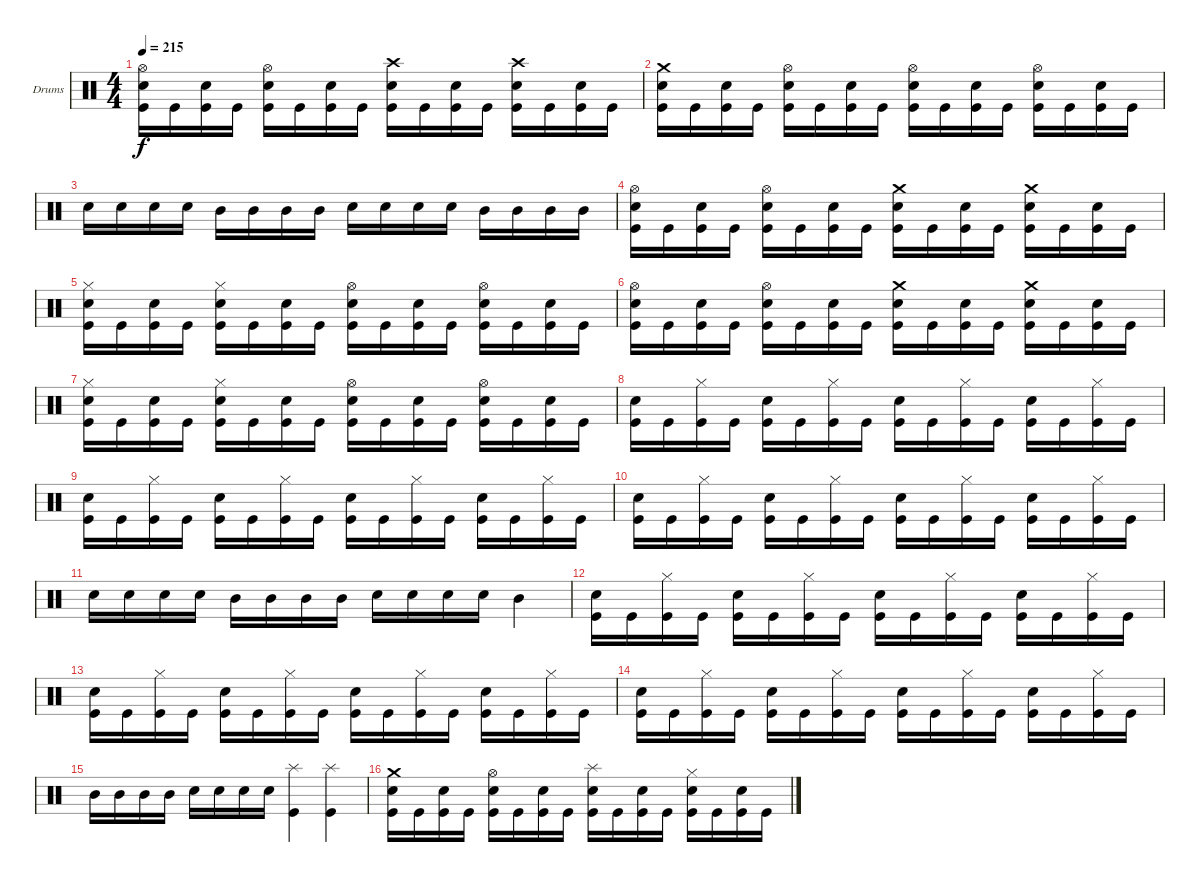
\defaultSystemsLayout 4
\bracketExtendMode groupsimilarinstruments
\firstSystemTrackNameOrientation horizontal
\otherSystemsTrackNameOrientation horizontal
\track ("Trey Williams" "Drums") {instrument percussion}
\staff {score}
\articulation defaults
\ts (4 4)
\tempo 215
\clef neutral
\ks c
("Kick (hit)" "Snare (hit) 2" "Hi-Hat (open)").16{dy f} "Kick (hit)".16 ("Kick (hit)" "Snare (hit) 2").16 "Kick (hit)".16 ("Kick (hit)" "Snare (hit) 2" "Hi-Hat (open)").16 "Kick (hit)".16 ("Kick (hit)" "Snare (hit) 2").16 "Kick (hit)".16 ("Kick (hit)" "Snare (hit) 2" "Crash high (hit)").16 "Kick (hit)".16 ("Kick (hit)" "Snare (hit) 2").16 "Kick (hit)".16 ("Kick (hit)" "Snare (hit) 2" "Crash high (hit)").16 "Kick (hit)".16 ("Kick (hit)" "Snare (hit) 2").16 "Kick (hit)".16 |
("Kick (hit)" "Snare (hit) 2" "Crash medium (hit)").16 "Kick (hit)".16 ("Kick (hit)" "Snare (hit) 2").16 "Kick (hit)".16 ("Kick (hit)" "Snare (hit) 2" "Hi-Hat (open)").16 "Kick (hit)".16 ("Kick (hit)" "Snare (hit) 2").16 "Kick (hit)".16 ("Kick (hit)" "Snare (hit) 2" "Hi-Hat (open)").16 "Kick (hit)".16 ("Kick (hit)" "Snare (hit) 2").16 "Kick (hit)".16 ("Kick (hit)" "Snare (hit) 2" "Hi-Hat (open)").16 "Kick (hit)".16 ("Kick (hit)" "Snare (hit) 2").16 "Kick (hit)".16 |
"Snare (hit) 2".16 "Snare (hit) 2".16 "Snare (hit) 2".16 "Snare (hit) 2".16 "Mid Tom (hit)".16 "Mid Tom (hit)".16 "Mid Tom (hit)".16 "Mid Tom (hit)".16 "Snare (hit) 2".16 "Snare (hit) 2".16 "Snare (hit) 2".16 "Snare (hit) 2".16 "Mid Tom (hit)".16 "Mid Tom (hit)".16 "Mid Tom (hit)".16 "Mid Tom (hit)".16 |
("Kick (hit)" "Snare (hit) 2" "Hi-Hat (open)").16 "Kick (hit)".16 ("Kick (hit)" "Snare (hit) 2").16 "Kick (hit)".16 ("Kick (hit)" "Snare (hit) 2" "Hi-Hat (open)").16 "Kick (hit)".16 ("Kick (hit)" "Snare (hit) 2").16 "Kick (hit)".16 ("Kick (hit)" "Snare (hit) 2" "Crash medium (hit)").16 "Kick (hit)".16 ("Kick (hit)" "Snare (hit) 2").16 "Kick (hit)".16 ("Kick (hit)" "Snare (hit) 2" "Crash medium (hit)").16 "Kick (hit)".16 ("Kick (hit)" "Snare (hit) 2").16 "Kick (hit)".16 |
("Kick (hit)" "Snare (hit) 2" "Hi-Hat (closed)").16 "Kick (hit)".16 ("Kick (hit)" "Snare (hit) 2").16 "Kick (hit)".16 ("Kick (hit)" "Snare (hit) 2" "Hi-Hat (closed)").16 "Kick (hit)".16 ("Kick (hit)" "Snare (hit) 2").16 "Kick (hit)".16 ("Kick (hit)" "Snare (hit) 2" "Hi-Hat (open)").16 "Kick (hit)".16 ("Kick (hit)" "Snare (hit) 2").16 "Kick (hit)".16 ("Kick (hit)" "Snare (hit) 2" "Hi-Hat (open)").16 "Kick (hit)".16 ("Kick (hit)" "Snare (hit) 2").16 "Kick (hit)".16 |
("Kick (hit)" "Snare (hit) 2" "Hi-Hat (open)").16 "Kick (hit)".16 ("Kick (hit)" "Snare (hit) 2").16 "Kick (hit)".16 ("Kick (hit)" "Snare (hit) 2" "Hi-Hat (open)").16 "Kick (hit)".16 ("Kick (hit)" "Snare (hit) 2").16 "Kick (hit)".16 ("Kick (hit)" "Snare (hit) 2" "Crash medium (hit)").16 "Kick (hit)".16 ("Kick (hit)" "Snare (hit) 2").16 "Kick (hit)".16 ("Kick (hit)" "Snare (hit) 2" "Crash medium (hit)").16 "Kick (hit)".16 ("Kick (hit)" "Snare (hit) 2").16 "Kick (hit)".16 |
("Kick (hit)" "Snare (hit) 2" "Hi-Hat (closed)").16 "Kick (hit)".16 ("Kick (hit)" "Snare (hit) 2").16 "Kick (hit)".16 ("Kick (hit)" "Snare (hit) 2" "Hi-Hat (closed)").16 "Kick (hit)".16 ("Kick (hit)" "Snare (hit) 2").16 "Kick (hit)".16 ("Kick (hit)" "Snare (hit) 2" "Hi-Hat (open)").16 "Kick (hit)".16 ("Kick (hit)" "Snare (hit) 2").16 "Kick (hit)".16 ("Kick (hit)" "Snare (hit) 2" "Hi-Hat (open)").16 "Kick (hit)".16 ("Kick (hit)" "Snare (hit) 2").16 "Kick (hit)".16 |
("Kick (hit)" "Snare (hit) 2").16 "Kick (hit)".16 ("Kick (hit)" "Hi-Hat (closed)").16 "Kick (hit)".16 ("Kick (hit)" "Snare (hit) 2").16 "Kick (hit)".16 ("Kick (hit)" "Hi-Hat (closed)").16 "Kick (hit)".16 ("Kick (hit)" "Snare (hit) 2").16 "Kick (hit)".16 ("Kick (hit)" "Hi-Hat (closed)").16 "Kick (hit)".16 ("Kick (hit)" "Snare (hit) 2").16 "Kick (hit)".16 ("Kick (hit)" "Hi-Hat (closed)").16 "Kick (hit)".16 |
("Kick (hit)" "Snare (hit) 2").16 "Kick (hit)".16 ("Kick (hit)" "Hi-Hat (closed)").16 "Kick (hit)".16 ("Kick (hit)" "Snare (hit) 2").16 "Kick (hit)".16 ("Kick (hit)" "Hi-Hat (closed)").16 "Kick (hit)".16 ("Kick (hit)" "Snare (hit) 2").16 "Kick (hit)".16 ("Kick (hit)" "Hi-Hat (closed)").16 "Kick (hit)".16 ("Kick (hit)" "Snare (hit) 2").16 "Kick (hit)".16 ("Kick (hit)" "Hi-Hat (closed)").16 "Kick (hit)".16 |
("Kick (hit)" "Snare (hit) 2").16 "Kick (hit)".16 ("Kick (hit)" "Hi-Hat (closed)").16 "Kick (hit)".16 ("Kick (hit)" "Snare (hit) 2").16 "Kick (hit)".16 ("Kick (hit)" "Hi-Hat (closed)").16 "Kick (hit)".16 ("Kick (hit)" "Snare (hit) 2").16 "Kick (hit)".16 ("Kick (hit)" "Hi-Hat (closed)").16 "Kick (hit)".16 ("Kick (hit)" "Snare (hit) 2").16 "Kick (hit)".16 ("Kick (hit)" "Hi-Hat (closed)").16 "Kick (hit)".16 |
"Snare (hit) 2".16 "Snare (hit) 2".16 "Snare (hit) 2".16 "Snare (hit) 2".16 "Mid Tom (hit)".16 "Mid Tom (hit)".16 "Mid Tom (hit)".16 "Mid Tom (hit)".16 "Snare (hit) 2".16 "Snare (hit) 2".16 "Snare (hit) 2".16 "Snare (hit) 2".16 "Mid Tom (hit)".4 |
("Kick (hit)" "Snare (hit) 2").16 "Kick (hit)".16 ("Kick (hit)" "Hi-Hat (closed)").16 "Kick (hit)".16 ("Kick (hit)" "Snare (hit) 2").16 "Kick (hit)".16 ("Kick (hit)" "Hi-Hat (closed)").16 "Kick (hit)".16 ("Kick (hit)" "Snare (hit) 2").16 "Kick (hit)".16 ("Kick (hit)" "Hi-Hat (closed)").16 "Kick (hit)".16 ("Kick (hit)" "Snare (hit) 2").16 "Kick (hit)".16 ("Kick (hit)" "Hi-Hat (closed)").16 "Kick (hit)".16 |
("Kick (hit)" "Snare (hit) 2").16 "Kick (hit)".16 ("Kick (hit)" "Hi-Hat (closed)").16 "Kick (hit)".16 ("Kick (hit)" "Snare (hit) 2").16 "Kick (hit)".16 ("Kick (hit)" "Hi-Hat (closed)").16 "Kick (hit)".16 ("Kick (hit)" "Snare (hit) 2").16 "Kick (hit)".16 ("Kick (hit)" "Hi-Hat (closed)").16 "Kick (hit)".16 ("Kick (hit)" "Snare (hit) 2").16 "Kick (hit)".16 ("Kick (hit)" "Hi-Hat (closed)").16 "Kick (hit)".16 |
("Kick (hit)" "Snare (hit) 2").16 "Kick (hit)".16 ("Kick (hit)" "Hi-Hat (closed)").16 "Kick (hit)".16 ("Kick (hit)" "Snare (hit) 2").16 "Kick (hit)".16 ("Kick (hit)" "Hi-Hat (closed)").16 "Kick (hit)".16 ("Kick (hit)" "Snare (hit) 2").16 "Kick (hit)".16 ("Kick (hit)" "Hi-Hat (closed)").16 "Kick (hit)".16 ("Kick (hit)" "Snare (hit) 2").16 "Kick (hit)".16 ("Kick (hit)" "Hi-Hat (closed)").16 "Kick (hit)".16 |
"Mid Tom (hit)".16 "Mid Tom (hit)".16 "Mid Tom (hit)".16 "Mid Tom (hit)".16 "Snare (hit) 2".16 "Snare (hit) 2".16 "Snare (hit) 2".16 "Snare (hit) 2".16 ("Kick (hit)" "Splash (hit)").4 ("Kick (hit)" "Splash (hit)").4 |
("Kick (hit)" "Snare (hit) 2" "Crash medium (hit)").16 "Kick (hit)".16 ("Kick (hit)" "Snare (hit) 2").16 "Kick (hit)".16 ("Kick (hit)" "Snare (hit) 2" "Hi-Hat (open)").16 "Kick (hit)".16 ("Kick (hit)" "Snare (hit) 2").16 "Kick (hit)".16 ("Kick (hit)" "Snare (hit) 2" "Splash (hit)").16 "Kick (hit)".16 ("Kick (hit)" "Snare (hit) 2").16 "Kick (hit)".16 ("Kick (hit)" "Snare (hit) 2" "Hi-Hat (closed)").16 "Kick (hit)".16 ("Kick (hit)" "Snare (hit) 2").16 "Kick (hit)".16
